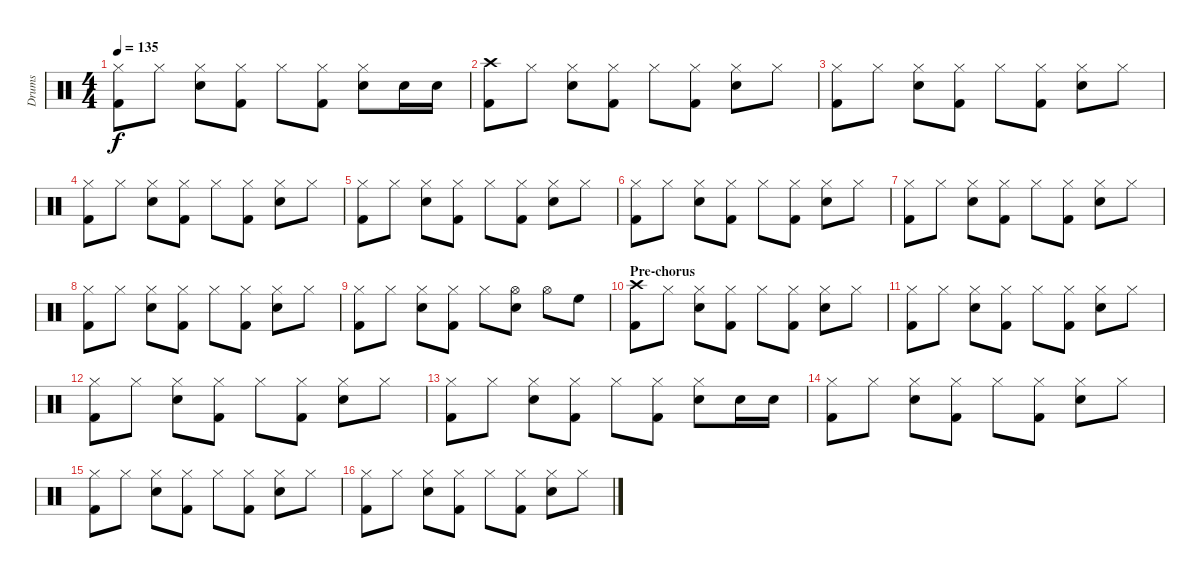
\track ("Drums" "Drums") {instrument percussion}
\staff {score}
\articulation defaults
\ts (4 4)
\tempo 135
\clef neutral
\ks c
("Kick (hit) 2" "Hi-Hat (closed)").8{dy f} "Hi-Hat (closed)".8 ("Snare (hit) 2" "Hi-Hat (closed)").8 ("Kick (hit) 2" "Hi-Hat (closed)").8 "Hi-Hat (closed)".8 ("Kick (hit) 2" "Hi-Hat (closed)").8 ("Snare (hit) 2" "Hi-Hat (closed)").8 "Snare (hit) 2".16 "Snare (hit) 2".16 |
("Crash high (hit)" "Kick (hit) 2").8 "Hi-Hat (closed)".8 ("Snare (hit) 2" "Hi-Hat (closed)").8 ("Kick (hit) 2" "Hi-Hat (closed)").8 "Hi-Hat (closed)".8 ("Kick (hit) 2" "Hi-Hat (closed)").8 ("Snare (hit) 2" "Hi-Hat (closed)").8 "Hi-Hat (closed)".8 |
("Kick (hit) 2" "Hi-Hat (closed)").8 "Hi-Hat (closed)".8 ("Snare (hit) 2" "Hi-Hat (closed)").8 ("Kick (hit) 2" "Hi-Hat (closed)").8 "Hi-Hat (closed)".8 ("Kick (hit) 2" "Hi-Hat (closed)").8 ("Snare (hit) 2" "Hi-Hat (closed)").8 "Hi-Hat (closed)".8 |
("Kick (hit) 2" "Hi-Hat (closed)").8 "Hi-Hat (closed)".8 ("Snare (hit) 2" "Hi-Hat (closed)").8 ("Kick (hit) 2" "Hi-Hat (closed)").8 "Hi-Hat (closed)".8 ("Kick (hit) 2" "Hi-Hat (closed)").8 ("Snare (hit) 2" "Hi-Hat (closed)").8 "Hi-Hat (closed)".8 |
("Kick (hit) 2" "Hi-Hat (closed)").8 "Hi-Hat (closed)".8 ("Snare (hit) 2" "Hi-Hat (closed)").8 ("Kick (hit) 2" "Hi-Hat (closed)").8 "Hi-Hat (closed)".8 ("Kick (hit) 2" "Hi-Hat (closed)").8 ("Snare (hit) 2" "Hi-Hat (closed)").8 "Hi-Hat (closed)".8 |
("Kick (hit) 2" "Hi-Hat (closed)").8 "Hi-Hat (closed)".8 ("Snare (hit) 2" "Hi-Hat (closed)").8 ("Kick (hit) 2" "Hi-Hat (closed)").8 "Hi-Hat (closed)".8 ("Kick (hit) 2" "Hi-Hat (closed)").8 ("Snare (hit) 2" "Hi-Hat (closed)").8 "Hi-Hat (closed)".8 |
("Kick (hit) 2" "Hi-Hat (closed)").8 "Hi-Hat (closed)".8 ("Snare (hit) 2" "Hi-Hat (closed)").8 ("Kick (hit) 2" "Hi-Hat (closed)").8 "Hi-Hat (closed)".8 ("Kick (hit) 2" "Hi-Hat (closed)").8 ("Snare (hit) 2" "Hi-Hat (closed)").8 "Hi-Hat (closed)".8 |
("Kick (hit) 2" "Hi-Hat (closed)").8 "Hi-Hat (closed)".8 ("Snare (hit) 2" "Hi-Hat (closed)").8 ("Kick (hit) 2" "Hi-Hat (closed)").8 "Hi-Hat (closed)".8 ("Kick (hit) 2" "Hi-Hat (closed)").8 ("Snare (hit) 2" "Hi-Hat (closed)").8 "Hi-Hat (closed)".8 |
("Kick (hit) 2" "Hi-Hat (closed)").8 "Hi-Hat (closed)".8 ("Snare (hit) 2" "Hi-Hat (closed)").8 ("Kick (hit) 2" "Hi-Hat (closed)").8 "Hi-Hat (closed)".8 ("Snare (hit) 2" "Hi-Hat (open)").8 "Hi-Hat (open)".8 "High Floor Tom (hit)".8 |
\section ("" "Pre-chorus")
("Crash high (hit)" "Kick (hit) 2").8 "Hi-Hat (closed)".8 ("Snare (hit) 2" "Hi-Hat (closed)").8 ("Kick (hit) 2" "Hi-Hat (closed)").8 "Hi-Hat (closed)".8 ("Kick (hit) 2" "Hi-Hat (closed)").8 ("Snare (hit) 2" "Hi-Hat (closed)").8 "Hi-Hat (closed)".8 |
("Kick (hit) 2" "Hi-Hat (closed)").8 "Hi-Hat (closed)".8 ("Snare (hit) 2" "Hi-Hat (closed)").8 ("Kick (hit) 2" "Hi-Hat (closed)").8 "Hi-Hat (closed)".8 ("Kick (hit) 2" "Hi-Hat (closed)").8 ("Snare (hit) 2" "Hi-Hat (closed)").8 "Hi-Hat (closed)".8 |
("Kick (hit) 2" "Hi-Hat (closed)").8 "Hi-Hat (closed)".8 ("Snare (hit) 2" "Hi-Hat (closed)").8 ("Kick (hit) 2" "Hi-Hat (closed)").8 "Hi-Hat (closed)".8 ("Kick (hit) 2" "Hi-Hat (closed)").8 ("Snare (hit) 2" "Hi-Hat (closed)").8 "Hi-Hat (closed)".8 |
("Kick (hit) 2" "Hi-Hat (closed)").8 "Hi-Hat (closed)".8 ("Snare (hit) 2" "Hi-Hat (closed)").8 ("Kick (hit) 2" "Hi-Hat (closed)").8 "Hi-Hat (closed)".8 ("Kick (hit) 2" "Hi-Hat (closed)").8 ("Snare (hit) 2" "Hi-Hat (closed)").8 "Snare (hit) 2".16 "Snare (hit) 2".16 |
("Kick (hit) 2" "Hi-Hat (closed)").8 "Hi-Hat (closed)".8 ("Snare (hit) 2" "Hi-Hat (closed)").8 ("Kick (hit) 2" "Hi-Hat (closed)").8 "Hi-Hat (closed)".8 ("Kick (hit) 2" "Hi-Hat (closed)").8 ("Snare (hit) 2" "Hi-Hat (closed)").8 "Hi-Hat (closed)".8 |
("Kick (hit) 2" "Hi-Hat (closed)").8 "Hi-Hat (closed)".8 ("Snare (hit) 2" "Hi-Hat (closed)").8 ("Kick (hit) 2" "Hi-Hat (closed)").8 "Hi-Hat (closed)".8 ("Kick (hit) 2" "Hi-Hat (closed)").8 ("Snare (hit) 2" "Hi-Hat (closed)").8 "Hi-Hat (closed)".8 |
("Kick (hit) 2" "Hi-Hat (closed)").8 "Hi-Hat (closed)".8 ("Snare (hit) 2" "Hi-Hat (closed)").8 ("Kick (hit) 2" "Hi-Hat (closed)").8 "Hi-Hat (closed)".8 ("Kick (hit) 2" "Hi-Hat (closed)").8 ("Snare (hit) 2" "Hi-Hat (closed)").8 "Hi-Hat (closed)".8
